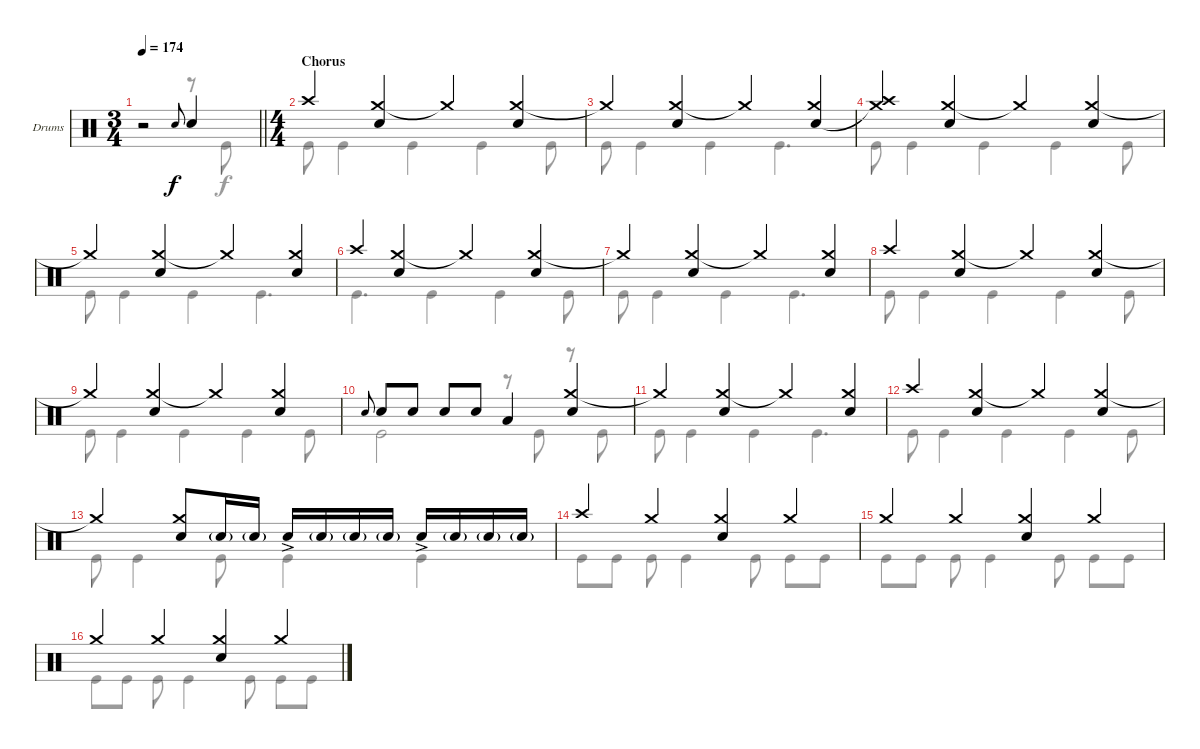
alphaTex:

\bracketExtendMode groupsimilarinstruments
\firstSystemTrackNameOrientation horizontal
\otherSystemsTrackNameOrientation horizontal
\track ("Drumkit" "Drums") {instrument percussion}
\staff {score}
\articulation defaults
\voice
\ts (3 4)
\tempo 174
\clef neutral
\barLineRight lightlight
\ks c
r.2{dy f} "Snare (hit) 2".8{gr onbeat} "Snare (hit) 2".4 |
\ts (4 4)
\beaming (8 2 2 2 2)
\section ("" "Chorus")
"Crash high (hit)".4 ("Crash medium (hit)" "Snare (hit) 2").4 "Crash medium (hit)"{t}.4 ("Crash medium (hit)" "Snare (hit) 2").4 |
"Crash medium (hit)"{t}.4 ("Crash medium (hit)" "Snare (hit) 2").4 "Crash medium (hit)"{t}.4 ("Crash medium (hit)" "Snare (hit) 2").4 |
("Crash high (hit)" "Crash medium (hit)"{t}).4 ("Crash medium (hit)" "Snare (hit) 2").4 "Crash medium (hit)"{t}.4 ("Crash medium (hit)" "Snare (hit) 2").4 |
"Crash medium (hit)"{t}.4 ("Crash medium (hit)" "Snare (hit) 2").4 "Crash medium (hit)"{t}.4 ("Crash medium (hit)" "Snare (hit) 2").4 |
"Crash high (hit)".4 ("Crash medium (hit)" "Snare (hit) 2").4 "Crash medium (hit)"{t}.4 ("Crash medium (hit)" "Snare (hit) 2").4 |
"Crash medium (hit)"{t}.4 ("Crash medium (hit)" "Snare (hit) 2").4 "Crash medium (hit)"{t}.4 ("Crash medium (hit)" "Snare (hit) 2").4 |
"Crash high (hit)".4 ("Crash medium (hit)" "Snare (hit) 2").4 "Crash medium (hit)"{t}.4 ("Crash medium (hit)" "Snare (hit) 2").4 |
"Crash medium (hit)"{t}.4 ("Crash medium (hit)" "Snare (hit) 2").4 "Crash medium (hit)"{t}.4 ("Crash medium (hit)" "Snare (hit) 2").4 |
"Snare (hit) 2".8{gr onbeat} "Snare (hit) 2".8 "Snare (hit) 2".8 "Snare (hit) 2".8 "Snare (hit) 2".8 "Low Tom (hit)".4 ("Crash medium (hit)" "Snare (hit) 2").4 |
"Crash medium (hit)"{t}.4 ("Crash medium (hit)" "Snare (hit) 2").4 "Crash medium (hit)"{t}.4 ("Crash medium (hit)" "Snare (hit) 2").4 |
"Crash high (hit)".4 ("Crash medium (hit)" "Snare (hit) 2").4 "Crash medium (hit)"{t}.4 ("Crash medium (hit)" "Snare (hit) 2").4 |
"Crash medium (hit)"{t}.4 ("Crash medium (hit)" "Snare (hit) 2").8 "Snare (hit) 2"{g}.16 "Snare (hit) 2"{g}.16 "Snare (hit) 2"{ac}.16 "Snare (hit) 2"{g}.16 "Snare (hit) 2"{g}.16 "Snare (hit) 2"{g}.16 "Snare (hit) 2"{ac}.16 "Snare (hit) 2"{g}.16 "Snare (hit) 2"{g}.16 "Snare (hit) 2"{g}.16 |
"Crash high (hit)".4 "Crash medium (hit)".4 ("Crash medium (hit)" "Snare (hit) 2").4 "Crash medium (hit)".4 |
"Crash medium (hit)".4 "Crash medium (hit)".4 ("Crash medium (hit)" "Snare (hit) 2").4 "Crash medium (hit)".4 |
"Crash medium (hit)".4 "Crash medium (hit)".4 ("Crash medium (hit)" "Snare (hit) 2").4 "Crash medium (hit)".4
\voice
\clef neutral
\ottava regular
\simile none
\barLineRight lightlight
\ks c
r.2{dy f} r.8 "Kick (hit)".8 |
"Kick (hit)".8 "Kick (hit)".4 "Kick (hit)".4 "Kick (hit)".4 "Kick (hit)".8 |
"Kick (hit)".8 "Kick (hit)".4 "Kick (hit)".4 "Kick (hit)".4{d} |
"Kick (hit)".8 "Kick (hit)".4 "Kick (hit)".4 "Kick (hit)".4 "Kick (hit)".8 |
"Kick (hit)".8 "Kick (hit)".4 "Kick (hit)".4 "Kick (hit)".4{d} |
"Kick (hit)".4{d} "Kick (hit)".4 "Kick (hit)".4 "Kick (hit)".8 |
"Kick (hit)".8 "Kick (hit)".4 "Kick (hit)".4 "Kick (hit)".4{d} |
"Kick (hit)".8 "Kick (hit)".4 "Kick (hit)".4 "Kick (hit)".4 "Kick (hit)".8 |
"Kick (hit)".8 "Kick (hit)".4 "Kick (hit)".4 "Kick (hit)".4 "Kick (hit)".8 |
"Kick (hit)".2 r.8 "Kick (hit)".8 r.8 "Kick (hit)".8 |
"Kick (hit)".8 "Kick (hit)".4 "Kick (hit)".4 "Kick (hit)".4{d} |
"Kick (hit)".8 "Kick (hit)".4 "Kick (hit)".4 "Kick (hit)".4 "Kick (hit)".8 |
"Kick (hit)".8 "Kick (hit)".4 "Kick (hit)".8 "Kick (hit)".4 "Kick (hit)".4 |
"Kick (hit)".8 "Kick (hit)".8 "Kick (hit)".8 "Kick (hit)".4 "Kick (hit)".8 "Kick (hit)".8 "Kick (hit)".8 |
"Kick (hit)".8 "Kick (hit)".8 "Kick (hit)".8 "Kick (hit)".4 "Kick (hit)".8 "Kick (hit)".8 "Kick (hit)".8 |
"Kick (hit)".8 "Kick (hit)".8 "Kick (hit)".8 "Kick (hit)".4 "Kick (hit)".8 "Kick (hit)".8 "Kick (hit)".8
